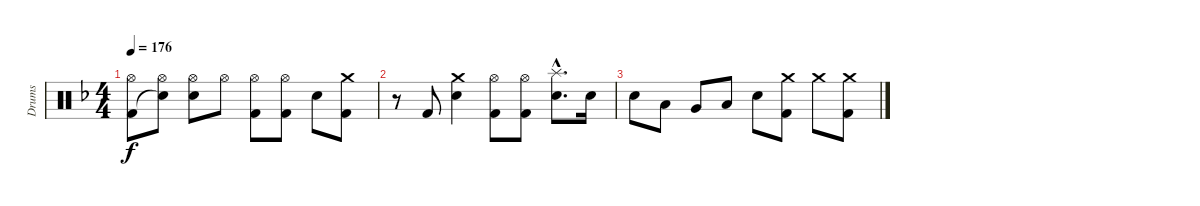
\track ("Drums" "Drums") {instrument percussion}
\staff {score}
\articulation defaults
\ts (4 4)
\tempo 176
\clef neutral
\ks f
("Hi-Hat (open)" "Kick (hit) 2").8{dy f} ("Hi-Hat (open)" "Snare (hit)"{t}).8 ("Hi-Hat (open)" "Electric Snare (hit)").8 "Hi-Hat (open)".8 ("Hi-Hat (open)" "Kick (hit) 2").8 ("Hi-Hat (open)" "Kick (hit) 2").8 "Electric Snare (hit)".8 ("Crash medium (hit)" "Kick (hit) 2").8 |
r.8 "Kick (hit) 2".8 ("Crash medium (hit)" "Electric Snare (hit)").4 ("Hi-Hat (open)" "Kick (hit) 2").8 ("Hi-Hat (open)" "Kick (hit) 2").8 ("Splash (hit)"{hac} "Electric Snare (hit)"{hac}).8{d} "Electric Snare (hit)".16 |
"Electric Snare (hit)".8 "Low Tom (hit)".8 "Very Low Tom (hit)".8 "Low Floor Tom (hit)".8 "Electric Snare (hit)".8 ("Crash medium (hit)" "Kick (hit) 2").8 "Crash medium (hit)".8 ("Crash medium (hit)" "Kick (hit) 2").8
